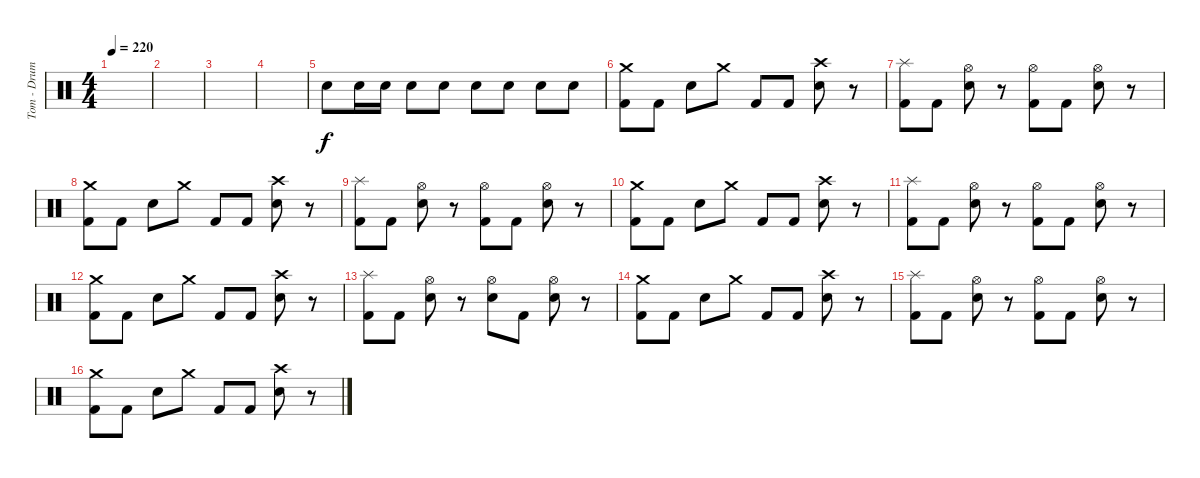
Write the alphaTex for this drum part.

\track ("Tom - Drums" "Tom - Drum") {instrument percussion}
\staff {score}
\articulation defaults
\ts (4 4)
\tempo 220
\clef neutral
\ks c
|
|
|
|
"Electric Snare (hit)".8 "Electric Snare (hit)".16 "Electric Snare (hit)".16 "Electric Snare (hit)".8 "Electric Snare (hit)".8 "Electric Snare (hit)".8 "Electric Snare (hit)".8 "Electric Snare (hit)".8 "Electric Snare (hit)".8 |
("Crash medium (hit)" "Kick (hit) 2").8 "Kick (hit) 2".8 "Electric Snare (hit)".8 "Crash medium (hit)".8 "Kick (hit) 2".8 "Kick (hit) 2".8 ("Crash high (hit)" "Electric Snare (hit)").8 r.8 |
("Splash (hit)" "Kick (hit) 2").8 "Kick (hit) 2".8 ("Hi-Hat (open)" "Electric Snare (hit)").8 r.8 ("Hi-Hat (open)" "Kick (hit) 2").8 "Kick (hit) 2".8 ("Hi-Hat (open)" "Electric Snare (hit)").8 r.8 |
("Crash medium (hit)" "Kick (hit) 2").8 "Kick (hit) 2".8 "Electric Snare (hit)".8 "Crash medium (hit)".8 "Kick (hit) 2".8 "Kick (hit) 2".8 ("Crash high (hit)" "Electric Snare (hit)").8 r.8 |
("Splash (hit)" "Kick (hit) 2").8 "Kick (hit) 2".8 ("Hi-Hat (open)" "Electric Snare (hit)").8 r.8 ("Hi-Hat (open)" "Kick (hit) 2").8 "Kick (hit) 2".8 ("Hi-Hat (open)" "Electric Snare (hit)").8 r.8 |
("Crash medium (hit)" "Kick (hit) 2").8 "Kick (hit) 2".8 "Electric Snare (hit)".8 "Crash medium (hit)".8 "Kick (hit) 2".8 "Kick (hit) 2".8 ("Crash high (hit)" "Electric Snare (hit)").8 r.8 |
("Splash (hit)" "Kick (hit) 2").8 "Kick (hit) 2".8 ("Hi-Hat (open)" "Electric Snare (hit)").8 r.8 ("Hi-Hat (open)" "Kick (hit) 2").8 "Kick (hit) 2".8 ("Hi-Hat (open)" "Electric Snare (hit)").8 r.8 |
("Crash medium (hit)" "Kick (hit) 2").8 "Kick (hit) 2".8 "Electric Snare (hit)".8 "Crash medium (hit)".8 "Kick (hit) 2".8 "Kick (hit) 2".8 ("Crash high (hit)" "Electric Snare (hit)").8 r.8 |
("Splash (hit)" "Kick (hit) 2").8 "Kick (hit) 2".8 ("Hi-Hat (open)" "Electric Snare (hit)").8 r.8 ("Hi-Hat (open)" "Electric Snare (hit)").8 "Kick (hit) 2".8 ("Hi-Hat (open)" "Electric Snare (hit)").8 r.8 |
("Crash medium (hit)" "Kick (hit) 2").8 "Kick (hit) 2".8 "Electric Snare (hit)".8 "Crash medium (hit)".8 "Kick (hit) 2".8 "Kick (hit) 2".8 ("Crash high (hit)" "Electric Snare (hit)").8 r.8 |
("Splash (hit)" "Kick (hit) 2").8 "Kick (hit) 2".8 ("Hi-Hat (open)" "Electric Snare (hit)").8 r.8 ("Hi-Hat (open)" "Kick (hit) 2").8 "Kick (hit) 2".8 ("Hi-Hat (open)" "Electric Snare (hit)").8 r.8 |
("Crash medium (hit)" "Kick (hit) 2").8 "Kick (hit) 2".8 "Electric Snare (hit)".8 "Crash medium (hit)".8 "Kick (hit) 2".8 "Kick (hit) 2".8 ("Crash high (hit)" "Electric Snare (hit)").8 r.8
